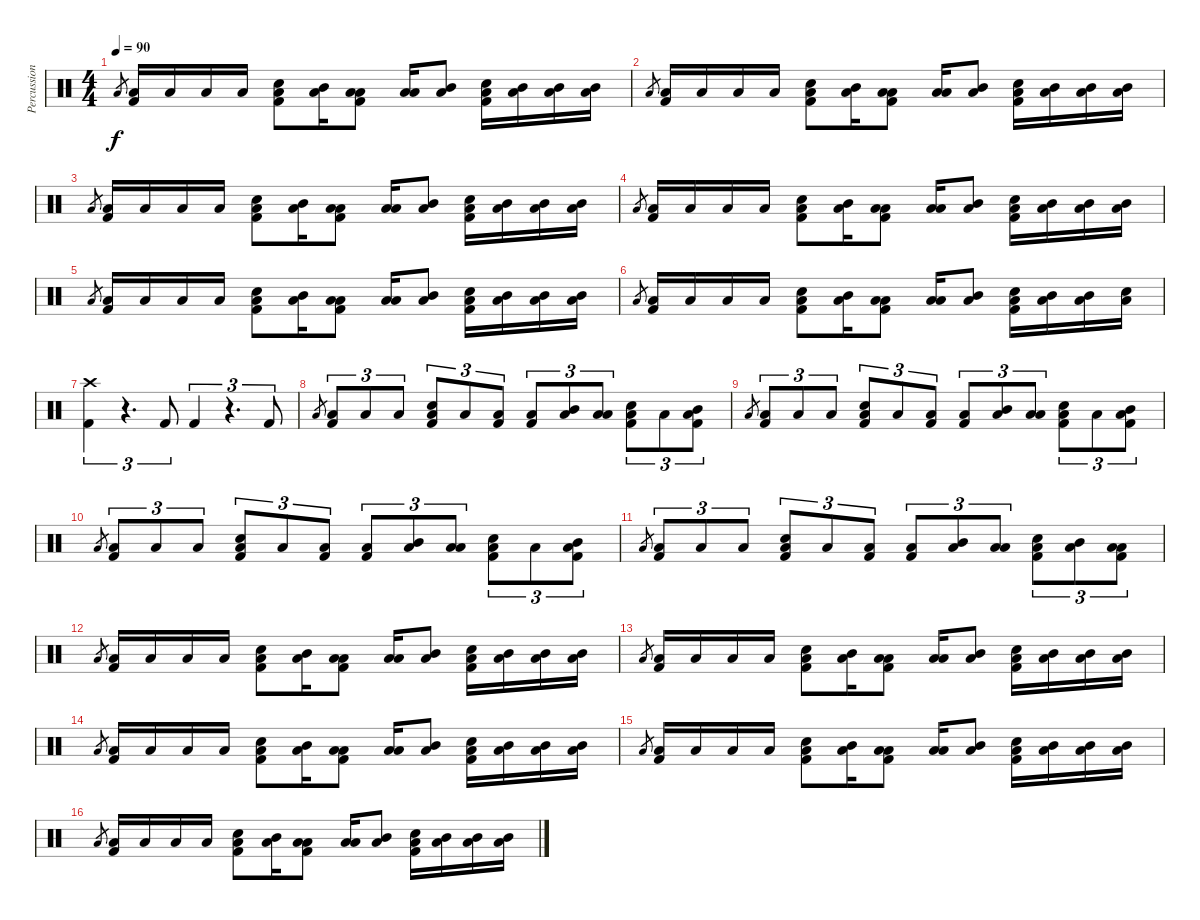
\track ("Percussion" "Percussion") {instrument percussion}
\staff {score}
\articulation defaults
\ts (4 4)
\tempo 90
\clef neutral
\ks c "Low Floor Tom (hit)".8{gr dy f}
("Low Floor Tom (hit)" "Kick (hit) 2").16 "Low Floor Tom (hit)".16 "Low Floor Tom (hit)".16 "Low Floor Tom (hit)".16 ("Low Floor Tom (hit)" "Snare (hit) 2" "Kick (hit) 2").8 ("Low Floor Tom (hit)" "Mid Tom (hit)").16 ("Low Floor Tom (hit)" "Low Tom (hit)" "Kick (hit) 2").8 ("Low Floor Tom (hit)" "Low Tom (hit)").16 ("Low Floor Tom (hit)" "Mid Tom (hit)").8 ("Low Floor Tom (hit)" "Snare (hit) 2" "Kick (hit) 2").16 ("Low Floor Tom (hit)" "Mid Tom (hit)").16 ("Low Floor Tom (hit)" "Mid Tom (hit)").16 ("Low Floor Tom (hit)" "Mid Tom (hit)").16 |
"Low Floor Tom (hit)".8{gr} ("Low Floor Tom (hit)" "Kick (hit) 2").16 "Low Floor Tom (hit)".16 "Low Floor Tom (hit)".16 "Low Floor Tom (hit)".16 ("Low Floor Tom (hit)" "Snare (hit) 2" "Kick (hit) 2").8 ("Low Floor Tom (hit)" "Mid Tom (hit)").16 ("Low Floor Tom (hit)" "Low Tom (hit)" "Kick (hit) 2").8 ("Low Floor Tom (hit)" "Low Tom (hit)").16 ("Low Floor Tom (hit)" "Mid Tom (hit)").8 ("Low Floor Tom (hit)" "Snare (hit) 2" "Kick (hit) 2").16 ("Low Floor Tom (hit)" "Mid Tom (hit)").16 ("Low Floor Tom (hit)" "Mid Tom (hit)").16 ("Low Floor Tom (hit)" "Mid Tom (hit)").16 |
"Low Floor Tom (hit)".8{gr} ("Low Floor Tom (hit)" "Kick (hit) 2").16 "Low Floor Tom (hit)".16 "Low Floor Tom (hit)".16 "Low Floor Tom (hit)".16 ("Low Floor Tom (hit)" "Snare (hit) 2" "Kick (hit) 2").8 ("Low Floor Tom (hit)" "Mid Tom (hit)").16 ("Low Floor Tom (hit)" "Low Tom (hit)" "Kick (hit) 2").8 ("Low Floor Tom (hit)" "Low Tom (hit)").16 ("Low Floor Tom (hit)" "Mid Tom (hit)").8 ("Low Floor Tom (hit)" "Snare (hit) 2" "Kick (hit) 2").16 ("Low Floor Tom (hit)" "Mid Tom (hit)").16 ("Low Floor Tom (hit)" "Mid Tom (hit)").16 ("Low Floor Tom (hit)" "Mid Tom (hit)").16 |
"Low Floor Tom (hit)".8{gr} ("Low Floor Tom (hit)" "Kick (hit) 2").16 "Low Floor Tom (hit)".16 "Low Floor Tom (hit)".16 "Low Floor Tom (hit)".16 ("Low Floor Tom (hit)" "Snare (hit) 2" "Kick (hit) 2").8 ("Low Floor Tom (hit)" "Mid Tom (hit)").16 ("Low Floor Tom (hit)" "Low Tom (hit)" "Kick (hit) 2").8 ("Low Floor Tom (hit)" "Low Tom (hit)").16 ("Low Floor Tom (hit)" "Mid Tom (hit)").8 ("Low Floor Tom (hit)" "Snare (hit) 2" "Kick (hit) 2").16 ("Low Floor Tom (hit)" "Mid Tom (hit)").16 ("Low Floor Tom (hit)" "Mid Tom (hit)").16 ("Low Floor Tom (hit)" "Mid Tom (hit)").16 |
"Low Floor Tom (hit)".8{gr} ("Low Floor Tom (hit)" "Kick (hit) 2").16 "Low Floor Tom (hit)".16 "Low Floor Tom (hit)".16 "Low Floor Tom (hit)".16 ("Low Floor Tom (hit)" "Snare (hit) 2" "Kick (hit) 2").8 ("Low Floor Tom (hit)" "Mid Tom (hit)").16 ("Low Floor Tom (hit)" "Low Tom (hit)" "Kick (hit) 2").8 ("Low Floor Tom (hit)" "Low Tom (hit)").16 ("Low Floor Tom (hit)" "Mid Tom (hit)").8 ("Low Floor Tom (hit)" "Snare (hit) 2" "Kick (hit) 2").16 ("Low Floor Tom (hit)" "Mid Tom (hit)").16 ("Low Floor Tom (hit)" "Mid Tom (hit)").16 ("Low Floor Tom (hit)" "Mid Tom (hit)").16 |
"Low Floor Tom (hit)".8{gr} ("Low Floor Tom (hit)" "Kick (hit) 2").16 "Low Floor Tom (hit)".16 "Low Floor Tom (hit)".16 "Low Floor Tom (hit)".16 ("Low Floor Tom (hit)" "Snare (hit) 2" "Kick (hit) 2").8 ("Low Floor Tom (hit)" "Mid Tom (hit)").16 ("Low Floor Tom (hit)" "Low Tom (hit)" "Kick (hit) 2").8 ("Low Floor Tom (hit)" "Low Tom (hit)").16 ("Low Floor Tom (hit)" "Mid Tom (hit)").8 ("Low Floor Tom (hit)" "Snare (hit) 2" "Kick (hit) 2").16 ("Low Floor Tom (hit)" "Mid Tom (hit)").16 ("Low Floor Tom (hit)" "Mid Tom (hit)").16 ("Low Floor Tom (hit)" "Snare (hit) 2").16 |
("Crash high (hit)" "Kick (hit) 2").4{tu (3 2)} r.4{d tu (3 2)} "Kick (hit) 2".8{tu (3 2)} "Kick (hit) 2".4{tu (3 2)} r.4{d tu (3 2)} "Kick (hit) 2".8{tu (3 2)} |
"Low Floor Tom (hit)".8{gr} ("Low Floor Tom (hit)" "Kick (hit) 2").8{tu (3 2)} "Low Floor Tom (hit)".8{tu (3 2)} "Low Floor Tom (hit)".8{tu (3 2)} ("Low Floor Tom (hit)" "Snare (hit) 2" "Kick (hit) 2").8{tu (3 2)} "Low Floor Tom (hit)".8{tu (3 2)} ("Low Floor Tom (hit)" "Kick (hit) 2").8{tu (3 2)} ("Low Floor Tom (hit)" "Kick (hit) 2").8{tu (3 2)} ("Low Floor Tom (hit)" "Mid Tom (hit)").8{tu (3 2)} ("Low Floor Tom (hit)" "Low Tom (hit)").8{tu (3 2)} ("Low Floor Tom (hit)" "Snare (hit) 2" "Kick (hit) 2").8{tu (3 2)} "Low Floor Tom (hit)".8{tu (3 2)} ("Low Floor Tom (hit)" "Mid Tom (hit)" "Kick (hit) 2").8{tu (3 2)} |
"Low Floor Tom (hit)".8{gr} ("Low Floor Tom (hit)" "Kick (hit) 2").8{tu (3 2)} "Low Floor Tom (hit)".8{tu (3 2)} "Low Floor Tom (hit)".8{tu (3 2)} ("Low Floor Tom (hit)" "Snare (hit) 2" "Kick (hit) 2").8{tu (3 2)} "Low Floor Tom (hit)".8{tu (3 2)} ("Low Floor Tom (hit)" "Kick (hit) 2").8{tu (3 2)} ("Low Floor Tom (hit)" "Kick (hit) 2").8{tu (3 2)} ("Low Floor Tom (hit)" "Mid Tom (hit)").8{tu (3 2)} ("Low Floor Tom (hit)" "Low Tom (hit)").8{tu (3 2)} ("Low Floor Tom (hit)" "Snare (hit) 2" "Kick (hit) 2").8{tu (3 2)} "Low Floor Tom (hit)".8{tu (3 2)} ("Low Floor Tom (hit)" "Mid Tom (hit)" "Kick (hit) 2").8{tu (3 2)} |
"Low Floor Tom (hit)".8{gr} ("Low Floor Tom (hit)" "Kick (hit) 2").8{tu (3 2)} "Low Floor Tom (hit)".8{tu (3 2)} "Low Floor Tom (hit)".8{tu (3 2)} ("Low Floor Tom (hit)" "Snare (hit) 2" "Kick (hit) 2").8{tu (3 2)} "Low Floor Tom (hit)".8{tu (3 2)} ("Low Floor Tom (hit)" "Kick (hit) 2").8{tu (3 2)} ("Low Floor Tom (hit)" "Kick (hit) 2").8{tu (3 2)} ("Low Floor Tom (hit)" "Mid Tom (hit)").8{tu (3 2)} ("Low Floor Tom (hit)" "Low Tom (hit)").8{tu (3 2)} ("Low Floor Tom (hit)" "Snare (hit) 2" "Kick (hit) 2").8{tu (3 2)} "Low Floor Tom (hit)".8{tu (3 2)} ("Low Floor Tom (hit)" "Mid Tom (hit)" "Kick (hit) 2").8{tu (3 2)} |
"Low Floor Tom (hit)".8{gr} ("Low Floor Tom (hit)" "Kick (hit) 2").8{tu (3 2)} "Low Floor Tom (hit)".8{tu (3 2)} "Low Floor Tom (hit)".8{tu (3 2)} ("Low Floor Tom (hit)" "Snare (hit) 2" "Kick (hit) 2").8{tu (3 2)} "Low Floor Tom (hit)".8{tu (3 2)} ("Low Floor Tom (hit)" "Kick (hit) 2").8{tu (3 2)} ("Low Floor Tom (hit)" "Kick (hit) 2").8{tu (3 2)} ("Low Floor Tom (hit)" "Mid Tom (hit)").8{tu (3 2)} ("Low Floor Tom (hit)" "Low Tom (hit)").8{tu (3 2)} ("Low Floor Tom (hit)" "Snare (hit) 2" "Kick (hit) 2").8{tu (3 2)} ("Low Floor Tom (hit)" "Mid Tom (hit)").8{tu (3 2)} ("Low Floor Tom (hit)" "Low Tom (hit)" "Kick (hit) 2").8{tu (3 2)} |
"Low Floor Tom (hit)".8{gr} ("Low Floor Tom (hit)" "Kick (hit) 2").16 "Low Floor Tom (hit)".16 "Low Floor Tom (hit)".16 "Low Floor Tom (hit)".16 ("Low Floor Tom (hit)" "Snare (hit) 2" "Kick (hit) 2").8 ("Low Floor Tom (hit)" "Mid Tom (hit)").16 ("Low Floor Tom (hit)" "Low Tom (hit)" "Kick (hit) 2").8 ("Low Floor Tom (hit)" "Low Tom (hit)").16 ("Low Floor Tom (hit)" "Mid Tom (hit)").8 ("Low Floor Tom (hit)" "Snare (hit) 2" "Kick (hit) 2").16 ("Low Floor Tom (hit)" "Mid Tom (hit)").16 ("Low Floor Tom (hit)" "Mid Tom (hit)").16 ("Low Floor Tom (hit)" "Mid Tom (hit)").16 |
"Low Floor Tom (hit)".8{gr} ("Low Floor Tom (hit)" "Kick (hit) 2").16 "Low Floor Tom (hit)".16 "Low Floor Tom (hit)".16 "Low Floor Tom (hit)".16 ("Low Floor Tom (hit)" "Snare (hit) 2" "Kick (hit) 2").8 ("Low Floor Tom (hit)" "Mid Tom (hit)").16 ("Low Floor Tom (hit)" "Low Tom (hit)" "Kick (hit) 2").8 ("Low Floor Tom (hit)" "Low Tom (hit)").16 ("Low Floor Tom (hit)" "Mid Tom (hit)").8 ("Low Floor Tom (hit)" "Snare (hit) 2" "Kick (hit) 2").16 ("Low Floor Tom (hit)" "Mid Tom (hit)").16 ("Low Floor Tom (hit)" "Mid Tom (hit)").16 ("Low Floor Tom (hit)" "Mid Tom (hit)").16 |
"Low Floor Tom (hit)".8{gr} ("Low Floor Tom (hit)" "Kick (hit) 2").16 "Low Floor Tom (hit)".16 "Low Floor Tom (hit)".16 "Low Floor Tom (hit)".16 ("Low Floor Tom (hit)" "Snare (hit) 2" "Kick (hit) 2").8 ("Low Floor Tom (hit)" "Mid Tom (hit)").16 ("Low Floor Tom (hit)" "Low Tom (hit)" "Kick (hit) 2").8 ("Low Floor Tom (hit)" "Low Tom (hit)").16 ("Low Floor Tom (hit)" "Mid Tom (hit)").8 ("Low Floor Tom (hit)" "Snare (hit) 2" "Kick (hit) 2").16 ("Low Floor Tom (hit)" "Mid Tom (hit)").16 ("Low Floor Tom (hit)" "Mid Tom (hit)").16 ("Low Floor Tom (hit)" "Mid Tom (hit)").16 |
"Low Floor Tom (hit)".8{gr} ("Low Floor Tom (hit)" "Kick (hit) 2").16 "Low Floor Tom (hit)".16 "Low Floor Tom (hit)".16 "Low Floor Tom (hit)".16 ("Low Floor Tom (hit)" "Snare (hit) 2" "Kick (hit) 2").8 ("Low Floor Tom (hit)" "Mid Tom (hit)").16 ("Low Floor Tom (hit)" "Low Tom (hit)" "Kick (hit) 2").8 ("Low Floor Tom (hit)" "Low Tom (hit)").16 ("Low Floor Tom (hit)" "Mid Tom (hit)").8 ("Low Floor Tom (hit)" "Snare (hit) 2" "Kick (hit) 2").16 ("Low Floor Tom (hit)" "Mid Tom (hit)").16 ("Low Floor Tom (hit)" "Mid Tom (hit)").16 ("Low Floor Tom (hit)" "Mid Tom (hit)").16 |
"Low Floor Tom (hit)".8{gr} ("Low Floor Tom (hit)" "Kick (hit) 2").16 "Low Floor Tom (hit)".16 "Low Floor Tom (hit)".16 "Low Floor Tom (hit)".16 ("Low Floor Tom (hit)" "Snare (hit) 2" "Kick (hit) 2").8 ("Low Floor Tom (hit)" "Mid Tom (hit)").16 ("Low Floor Tom (hit)" "Low Tom (hit)" "Kick (hit) 2").8 ("Low Floor Tom (hit)" "Low Tom (hit)").16 ("Low Floor Tom (hit)" "Mid Tom (hit)").8 ("Low Floor Tom (hit)" "Snare (hit) 2" "Kick (hit) 2").16 ("Low Floor Tom (hit)" "Mid Tom (hit)").16 ("Low Floor Tom (hit)" "Mid Tom (hit)").16 ("Low Floor Tom (hit)" "Mid Tom (hit)").16
